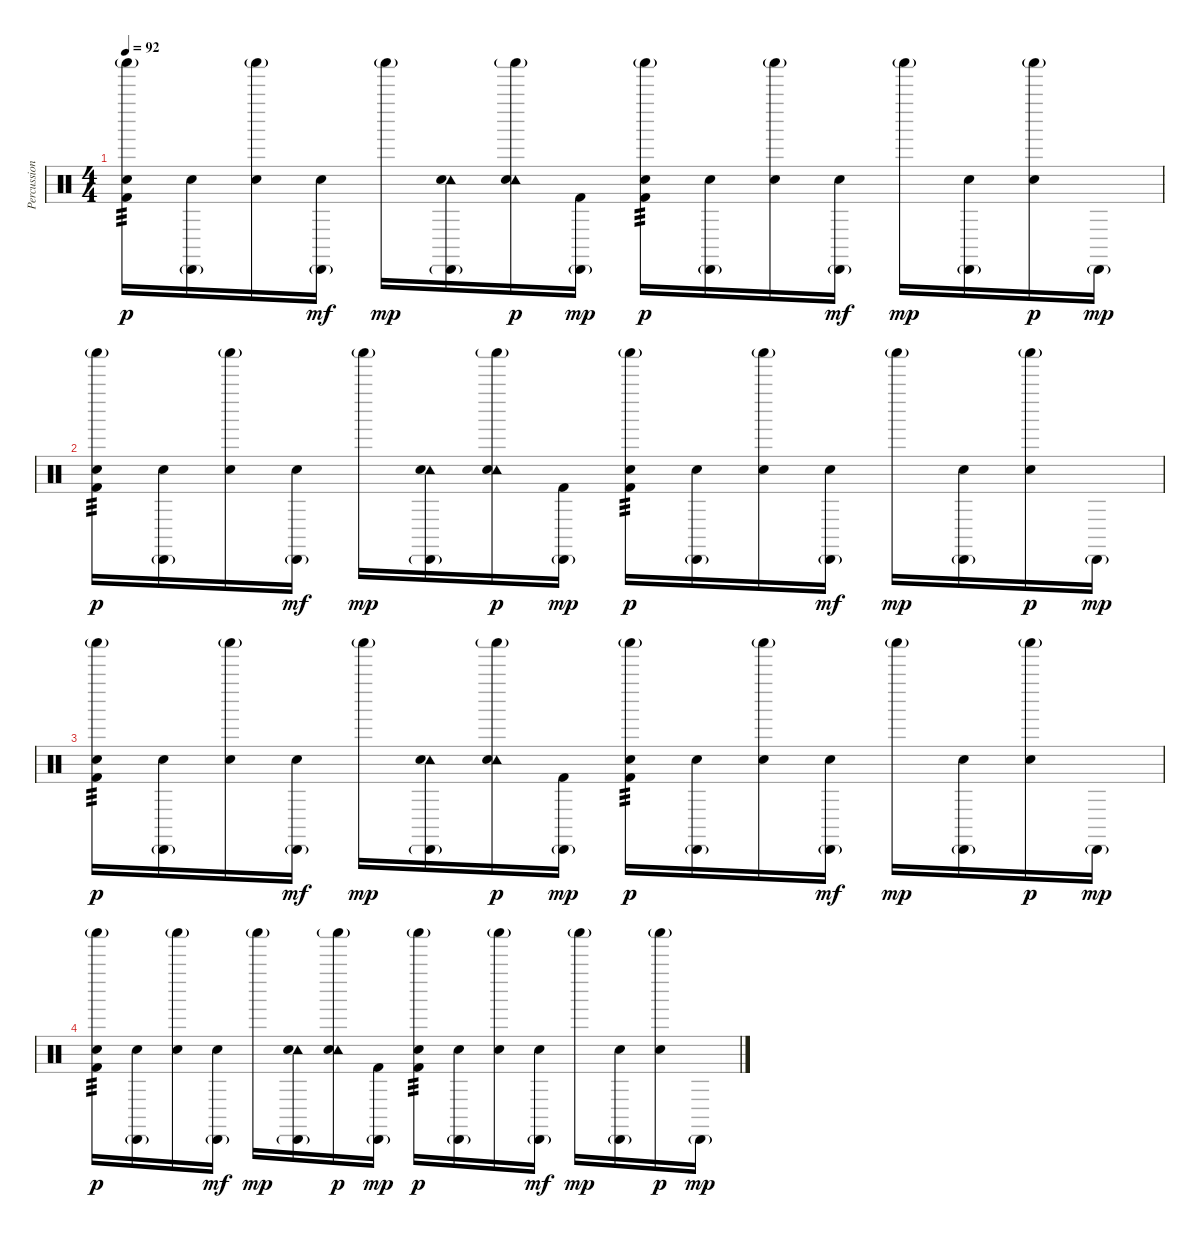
\track ("Percussion2" "Percussion") {instrument percussion}
\staff {score}
\articulation defaults
\ts (4 4)
\tempo 92
\clef neutral
\ks c
("Shaker (hit)"{g} "Snare (hit) 2" "Kick (hit) 2").16{tp 3 dy p} ("Cabasa (hit)"{g} "Snare (hit) 2").16 ("Shaker (hit)"{g} "Snare (hit) 2").16 ("Cabasa (hit)"{g} "Snare (hit) 2").16{dy mf} "Shaker (hit)"{g}.16{dy mp} ("Cabasa (hit)"{g} "Tambourine (hit)" "Snare (hit) 2").16 ("Shaker (hit)"{g} "Tambourine (hit)" "Snare (hit) 2").16{dy p} ("Cabasa (hit)"{g} "Kick (hit) 2").16{dy mp} ("Shaker (hit)"{g} "Snare (hit) 2" "Kick (hit) 2").16{tp 3 dy p} ("Cabasa (hit)"{g} "Snare (hit) 2").16 ("Shaker (hit)"{g} "Snare (hit) 2").16 ("Cabasa (hit)"{g} "Snare (hit) 2").16{dy mf} "Shaker (hit)"{g}.16{dy mp} ("Cabasa (hit)"{g} "Snare (hit) 2").16 ("Shaker (hit)"{g} "Snare (hit) 2").16{dy p} "Cabasa (hit)"{g}.16{dy mp} |
("Shaker (hit)"{g} "Snare (hit) 2" "Kick (hit) 2").16{tp 3 dy p} ("Cabasa (hit)"{g} "Snare (hit) 2").16 ("Shaker (hit)"{g} "Snare (hit) 2").16 ("Cabasa (hit)"{g} "Snare (hit) 2").16{dy mf} "Shaker (hit)"{g}.16{dy mp} ("Cabasa (hit)"{g} "Tambourine (hit)" "Snare (hit) 2").16 ("Shaker (hit)"{g} "Tambourine (hit)" "Snare (hit) 2").16{dy p} ("Cabasa (hit)"{g} "Kick (hit) 2").16{dy mp} ("Shaker (hit)"{g} "Snare (hit) 2" "Kick (hit) 2").16{tp 3 dy p} ("Cabasa (hit)"{g} "Snare (hit) 2").16 ("Shaker (hit)"{g} "Snare (hit) 2").16 ("Cabasa (hit)"{g} "Snare (hit) 2").16{dy mf} "Shaker (hit)"{g}.16{dy mp} ("Cabasa (hit)"{g} "Snare (hit) 2").16 ("Shaker (hit)"{g} "Snare (hit) 2").16{dy p} "Cabasa (hit)"{g}.16{dy mp} |
("Shaker (hit)"{g} "Snare (hit) 2" "Kick (hit) 2").16{tp 3 dy p} ("Cabasa (hit)"{g} "Snare (hit) 2").16 ("Shaker (hit)"{g} "Snare (hit) 2").16 ("Cabasa (hit)"{g} "Snare (hit) 2").16{dy mf} "Shaker (hit)"{g}.16{dy mp} ("Cabasa (hit)"{g} "Tambourine (hit)" "Snare (hit) 2").16 ("Shaker (hit)"{g} "Tambourine (hit)" "Snare (hit) 2").16{dy p} ("Cabasa (hit)"{g} "Kick (hit) 2").16{dy mp} ("Shaker (hit)"{g} "Snare (hit) 2" "Kick (hit) 2").16{tp 3 dy p} ("Cabasa (hit)"{g} "Snare (hit) 2").16 ("Shaker (hit)"{g} "Snare (hit) 2").16 ("Cabasa (hit)"{g} "Snare (hit) 2").16{dy mf} "Shaker (hit)"{g}.16{dy mp} ("Cabasa (hit)"{g} "Snare (hit) 2").16 ("Shaker (hit)"{g} "Snare (hit) 2").16{dy p} "Cabasa (hit)"{g}.16{dy mp} |
("Shaker (hit)"{g} "Snare (hit) 2" "Kick (hit) 2").16{tp 3 dy p} ("Cabasa (hit)"{g} "Snare (hit) 2").16 ("Shaker (hit)"{g} "Snare (hit) 2").16 ("Cabasa (hit)"{g} "Snare (hit) 2").16{dy mf} "Shaker (hit)"{g}.16{dy mp} ("Cabasa (hit)"{g} "Tambourine (hit)" "Snare (hit) 2").16 ("Shaker (hit)"{g} "Tambourine (hit)" "Snare (hit) 2").16{dy p} ("Cabasa (hit)"{g} "Kick (hit) 2").16{dy mp} ("Shaker (hit)"{g} "Snare (hit) 2" "Kick (hit) 2").16{tp 3 dy p} ("Cabasa (hit)"{g} "Snare (hit) 2").16 ("Shaker (hit)"{g} "Snare (hit) 2").16 ("Cabasa (hit)"{g} "Snare (hit) 2").16{dy mf} "Shaker (hit)"{g}.16{dy mp} ("Cabasa (hit)"{g} "Snare (hit) 2").16 ("Shaker (hit)"{g} "Snare (hit) 2").16{dy p} "Cabasa (hit)"{g}.16{dy mp}
